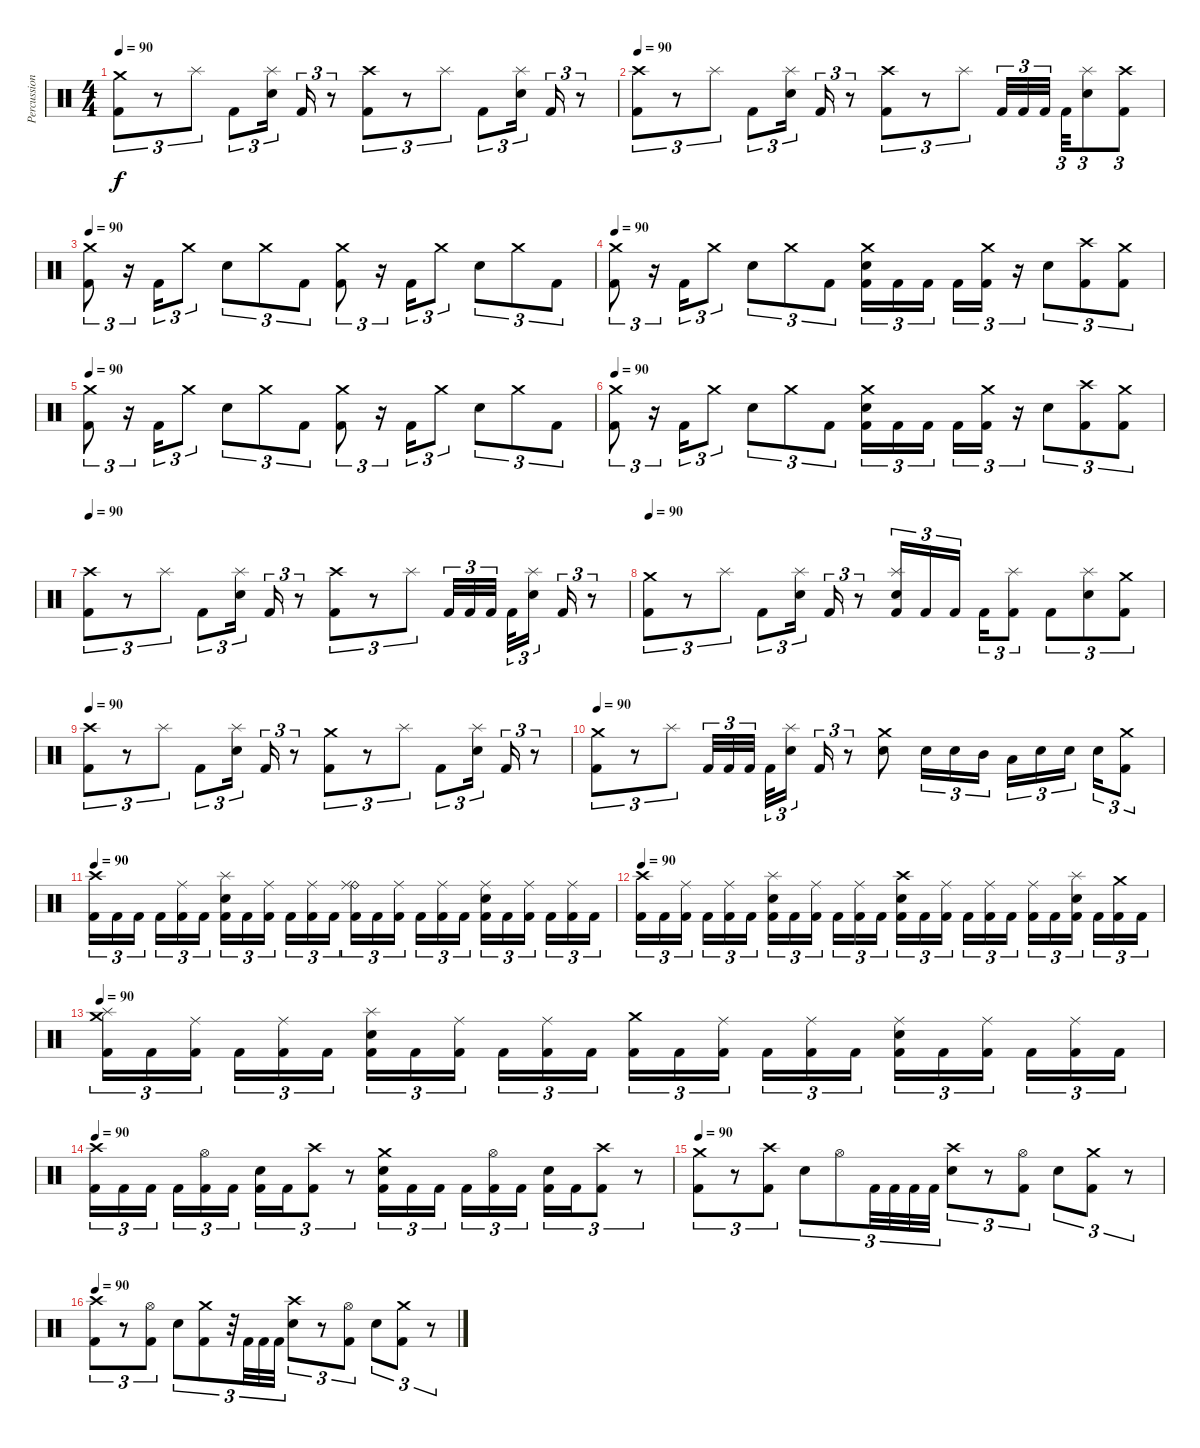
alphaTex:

\track ("Percussion" "Percussion") {instrument percussion}
\staff {score}
\articulation defaults
\ts (4 4)
\tempo 90
\clef neutral
\ks c
("Crash medium (hit)" "Kick (hit) 2").8{tu (3 2) dy f} r.8{tu (3 2)} "Splash (hit)".8{tu (3 2)} "Kick (hit) 2".8{tu (3 2)} ("Splash (hit)" "Electric Snare (hit)").16{tu (3 2)} "Kick (hit) 2".16{tu (3 2)} r.8{tu (3 2)} ("Crash high (hit)" "Kick (hit) 2").8{tu (3 2)} r.8{tu (3 2)} "Splash (hit)".8{tu (3 2)} "Kick (hit) 2".8{tu (3 2)} ("Splash (hit)" "Electric Snare (hit)").16{tu (3 2)} "Kick (hit) 2".16{tu (3 2)} r.8{tu (3 2)} |
\tempo 90
("Crash high (hit)" "Kick (hit) 2").8{tu (3 2)} r.8{tu (3 2)} "Splash (hit)".8{tu (3 2)} "Kick (hit) 2".8{tu (3 2)} ("Splash (hit)" "Electric Snare (hit)").16{tu (3 2)} "Kick (hit) 2".16{tu (3 2)} r.8{tu (3 2)} ("Crash high (hit)" "Kick (hit) 2").8{tu (3 2)} r.8{tu (3 2)} "Splash (hit)".8{tu (3 2)} "Kick (hit) 2".32{tu (3 2)} "Kick (hit) 2".32{tu (3 2)} "Kick (hit) 2".32{tu (3 2)} "Kick (hit) 2".32{tu (3 2)} ("Splash (hit)" "Electric Snare (hit)").8{tu (3 2)} ("Crash high (hit)" "Kick (hit) 2").8{tu (3 2)} |
\tempo 90
("Crash medium (hit)" "Kick (hit) 2").8{tu (3 2)} r.16{tu (3 2)} "Kick (hit) 2".16{tu (3 2)} "Crash medium (hit)".8{tu (3 2)} "Electric Snare (hit)".8{tu (3 2)} "Crash medium (hit)".8{tu (3 2)} "Kick (hit) 2".8{tu (3 2)} ("Crash medium (hit)" "Kick (hit) 2").8{tu (3 2)} r.16{tu (3 2)} "Kick (hit) 2".16{tu (3 2)} "Crash medium (hit)".8{tu (3 2)} "Electric Snare (hit)".8{tu (3 2)} "Crash medium (hit)".8{tu (3 2)} "Kick (hit) 2".8{tu (3 2)} |
\tempo 90
("Crash medium (hit)" "Kick (hit) 2").8{tu (3 2)} r.16{tu (3 2)} "Kick (hit) 2".16{tu (3 2)} "Crash medium (hit)".8{tu (3 2)} "Electric Snare (hit)".8{tu (3 2)} "Crash medium (hit)".8{tu (3 2)} "Kick (hit) 2".8{tu (3 2)} ("Crash medium (hit)" "Electric Snare (hit)" "Kick (hit) 2").16{tu (3 2)} "Kick (hit) 2".16{tu (3 2)} "Kick (hit) 2".16{tu (3 2)} "Kick (hit) 2".16{tu (3 2)} ("Crash medium (hit)" "Kick (hit) 2").16{tu (3 2)} r.16{tu (3 2)} "Electric Snare (hit)".8{tu (3 2)} ("Crash high (hit)" "Kick (hit) 2").8{tu (3 2)} ("Crash medium (hit)" "Kick (hit) 2").8{tu (3 2)} |
\tempo 90
("Crash medium (hit)" "Kick (hit) 2").8{tu (3 2)} r.16{tu (3 2)} "Kick (hit) 2".16{tu (3 2)} "Crash medium (hit)".8{tu (3 2)} "Electric Snare (hit)".8{tu (3 2)} "Crash medium (hit)".8{tu (3 2)} "Kick (hit) 2".8{tu (3 2)} ("Crash medium (hit)" "Kick (hit) 2").8{tu (3 2)} r.16{tu (3 2)} "Kick (hit) 2".16{tu (3 2)} "Crash medium (hit)".8{tu (3 2)} "Electric Snare (hit)".8{tu (3 2)} "Crash medium (hit)".8{tu (3 2)} "Kick (hit) 2".8{tu (3 2)} |
\tempo 90
("Crash medium (hit)" "Kick (hit) 2").8{tu (3 2)} r.16{tu (3 2)} "Kick (hit) 2".16{tu (3 2)} "Crash medium (hit)".8{tu (3 2)} "Electric Snare (hit)".8{tu (3 2)} "Crash medium (hit)".8{tu (3 2)} "Kick (hit) 2".8{tu (3 2)} ("Crash medium (hit)" "Electric Snare (hit)" "Kick (hit) 2").16{tu (3 2)} "Kick (hit) 2".16{tu (3 2)} "Kick (hit) 2".16{tu (3 2)} "Kick (hit) 2".16{tu (3 2)} ("Crash medium (hit)" "Kick (hit) 2").16{tu (3 2)} r.16{tu (3 2)} "Electric Snare (hit)".8{tu (3 2)} ("Crash high (hit)" "Kick (hit) 2").8{tu (3 2)} ("Crash medium (hit)" "Kick (hit) 2").8{tu (3 2)} |
\tempo 90
("Crash high (hit)" "Kick (hit) 2").8{tu (3 2)} r.8{tu (3 2)} "Splash (hit)".8{tu (3 2)} "Kick (hit) 2".8{tu (3 2)} ("Splash (hit)" "Electric Snare (hit)").16{tu (3 2)} "Kick (hit) 2".16{tu (3 2)} r.8{tu (3 2)} ("Crash high (hit)" "Kick (hit) 2").8{tu (3 2)} r.8{tu (3 2)} "Splash (hit)".8{tu (3 2)} "Kick (hit) 2".32{tu (3 2)} "Kick (hit) 2".32{tu (3 2)} "Kick (hit) 2".32{tu (3 2)} "Kick (hit) 2".32{tu (3 2)} ("Splash (hit)" "Electric Snare (hit)").16{tu (3 2)} "Kick (hit) 2".16{tu (3 2)} r.8{tu (3 2)} |
\tempo 90
("Crash medium (hit)" "Kick (hit) 2").8{tu (3 2)} r.8{tu (3 2)} "Splash (hit)".8{tu (3 2)} "Kick (hit) 2".8{tu (3 2)} ("Splash (hit)" "Electric Snare (hit)").16{tu (3 2)} "Kick (hit) 2".16{tu (3 2)} r.8{tu (3 2)} ("Splash (hit)" "Electric Snare (hit)" "Kick (hit) 2").16{tu (3 2)} "Kick (hit) 2".16{tu (3 2)} "Kick (hit) 2".16{tu (3 2)} "Kick (hit) 2".16{tu (3 2)} ("Splash (hit)" "Kick (hit) 2").8{tu (3 2)} "Kick (hit) 2".8{tu (3 2)} ("Splash (hit)" "Electric Snare (hit)").8{tu (3 2)} ("Crash medium (hit)" "Kick (hit) 2").8{tu (3 2)} |
\tempo 90
("Crash high (hit)" "Kick (hit) 2").8{tu (3 2)} r.8{tu (3 2)} "Splash (hit)".8{tu (3 2)} "Kick (hit) 2".8{tu (3 2)} ("Splash (hit)" "Electric Snare (hit)").16{tu (3 2)} "Kick (hit) 2".16{tu (3 2)} r.8{tu (3 2)} ("Crash medium (hit)" "Kick (hit) 2").8{tu (3 2)} r.8{tu (3 2)} "Splash (hit)".8{tu (3 2)} "Kick (hit) 2".8{tu (3 2)} ("Splash (hit)" "Electric Snare (hit)").16{tu (3 2)} "Kick (hit) 2".16{tu (3 2)} r.8{tu (3 2)} |
\tempo 90
("Crash medium (hit)" "Kick (hit) 2").8{tu (3 2)} r.8{tu (3 2)} "Splash (hit)".8{tu (3 2)} "Kick (hit) 2".32{tu (3 2)} "Kick (hit) 2".32{tu (3 2)} "Kick (hit) 2".32{tu (3 2)} "Kick (hit) 2".32{tu (3 2)} ("Splash (hit)" "Electric Snare (hit)").16{tu (3 2)} "Kick (hit) 2".16{tu (3 2)} r.8{tu (3 2)} ("Crash medium (hit)" "Electric Snare (hit)").8 "Electric Snare (hit)".16{tu (3 2)} "Electric Snare (hit)".16{tu (3 2)} "Mid Tom (hit)".16{tu (3 2)} "Low Tom (hit)".16{tu (3 2)} "Electric Snare (hit)".16{tu (3 2)} "Electric Snare (hit)".16{tu (3 2)} "Electric Snare (hit)".16{tu (3 2)} ("Crash medium (hit)" "Kick (hit) 2").8{tu (3 2)} |
\tempo 90
("Crash high (hit)" "Kick (hit) 2").16{tu (3 2)} "Kick (hit) 2".16{tu (3 2)} "Kick (hit) 2".16{tu (3 2)} "Kick (hit) 2".16{tu (3 2)} ("Ride (middle)" "Kick (hit) 2").16{tu (3 2)} "Kick (hit) 2".16{tu (3 2)} ("Splash (hit)" "Electric Snare (hit)" "Kick (hit) 2").16{tu (3 2)} "Kick (hit) 2".16{tu (3 2)} ("Ride (middle)" "Kick (hit) 2").16{tu (3 2)} "Kick (hit) 2".16{tu (3 2)} ("Ride (middle)" "Kick (hit) 2").16{tu (3 2)} "Kick (hit) 2".16{tu (3 2)} ("Ride (bell)" "Ride (middle)" "Kick (hit) 2").16{tu (3 2)} "Kick (hit) 2".16{tu (3 2)} ("Ride (middle)" "Kick (hit) 2").16{tu (3 2)} "Kick (hit) 2".16{tu (3 2)} ("Ride (middle)" "Kick (hit) 2").16{tu (3 2)} "Kick (hit) 2".16{tu (3 2)} ("Ride (middle)" "Electric Snare (hit)" "Kick (hit) 2").16{tu (3 2)} "Kick (hit) 2".16{tu (3 2)} ("Ride (middle)" "Kick (hit) 2").16{tu (3 2)} "Kick (hit) 2".16{tu (3 2)} ("Ride (middle)" "Kick (hit) 2").16{tu (3 2)} "Kick (hit) 2".16{tu (3 2)} |
\tempo 90
("Crash high (hit)" "Kick (hit) 2").16{tu (3 2)} "Kick (hit) 2".16{tu (3 2)} ("Ride (middle)" "Kick (hit) 2").16{tu (3 2)} "Kick (hit) 2".16{tu (3 2)} ("Ride (middle)" "Kick (hit) 2").16{tu (3 2)} "Kick (hit) 2".16{tu (3 2)} ("Splash (hit)" "Electric Snare (hit)" "Kick (hit) 2").16{tu (3 2)} "Kick (hit) 2".16{tu (3 2)} ("Ride (middle)" "Kick (hit) 2").16{tu (3 2)} "Kick (hit) 2".16{tu (3 2)} ("Ride (middle)" "Kick (hit) 2").16{tu (3 2)} "Kick (hit) 2".16{tu (3 2)} ("Crash high (hit)" "Electric Snare (hit)" "Kick (hit) 2").16{tu (3 2)} "Kick (hit) 2".16{tu (3 2)} ("Ride (middle)" "Kick (hit) 2").16{tu (3 2)} "Kick (hit) 2".16{tu (3 2)} ("Ride (middle)" "Kick (hit) 2").16{tu (3 2)} "Kick (hit) 2".16{tu (3 2)} ("Ride (middle)" "Kick (hit) 2").16{tu (3 2)} "Kick (hit) 2".16{tu (3 2)} ("Splash (hit)" "Electric Snare (hit)" "Kick (hit) 2").16{tu (3 2)} "Kick (hit) 2".16{tu (3 2)} ("Crash medium (hit)" "Kick (hit) 2").16{tu (3 2)} "Kick (hit) 2".16{tu (3 2)} |
\tempo 90
("Crash medium (hit)" "Splash (hit)" "Kick (hit) 2").16{tu (3 2)} "Kick (hit) 2".16{tu (3 2)} ("Ride (middle)" "Kick (hit) 2").16{tu (3 2)} "Kick (hit) 2".16{tu (3 2)} ("Ride (middle)" "Kick (hit) 2").16{tu (3 2)} "Kick (hit) 2".16{tu (3 2)} ("Splash (hit)" "Electric Snare (hit)" "Kick (hit) 2").16{tu (3 2)} "Kick (hit) 2".16{tu (3 2)} ("Ride (middle)" "Kick (hit) 2").16{tu (3 2)} "Kick (hit) 2".16{tu (3 2)} ("Ride (middle)" "Kick (hit) 2").16{tu (3 2)} "Kick (hit) 2".16{tu (3 2)} ("Crash medium (hit)" "Kick (hit) 2").16{tu (3 2)} "Kick (hit) 2".16{tu (3 2)} ("Ride (middle)" "Kick (hit) 2").16{tu (3 2)} "Kick (hit) 2".16{tu (3 2)} ("Ride (middle)" "Kick (hit) 2").16{tu (3 2)} "Kick (hit) 2".16{tu (3 2)} ("Ride (middle)" "Electric Snare (hit)" "Kick (hit) 2").16{tu (3 2)} "Kick (hit) 2".16{tu (3 2)} ("Ride (middle)" "Kick (hit) 2").16{tu (3 2)} "Kick (hit) 2".16{tu (3 2)} ("Ride (middle)" "Kick (hit) 2").16{tu (3 2)} "Kick (hit) 2".16{tu (3 2)} |
\tempo 90
("Crash high (hit)" "Kick (hit) 2").16{tu (3 2)} "Kick (hit) 2".16{tu (3 2)} "Kick (hit) 2".16{tu (3 2)} "Kick (hit) 2".16{tu (3 2)} ("Hi-Hat (open)" "Kick (hit) 2").16{tu (3 2)} "Kick (hit) 2".16{tu (3 2)} ("Electric Snare (hit)" "Kick (hit) 2").16{tu (3 2)} "Kick (hit) 2".16{tu (3 2)} ("Crash high (hit)" "Kick (hit) 2").8{tu (3 2)} r.8{tu (3 2)} ("Crash medium (hit)" "Electric Snare (hit)" "Kick (hit) 2").16{tu (3 2)} "Kick (hit) 2".16{tu (3 2)} "Kick (hit) 2".16{tu (3 2)} "Kick (hit) 2".16{tu (3 2)} ("Hi-Hat (open)" "Kick (hit) 2").16{tu (3 2)} "Kick (hit) 2".16{tu (3 2)} ("Electric Snare (hit)" "Kick (hit) 2").16{tu (3 2)} "Kick (hit) 2".16{tu (3 2)} ("Crash high (hit)" "Kick (hit) 2").8{tu (3 2)} r.8{tu (3 2)} |
\tempo 90
("Crash medium (hit)" "Kick (hit) 2").8{tu (3 2)} r.8{tu (3 2)} ("Crash high (hit)" "Kick (hit) 2").8{tu (3 2)} "Electric Snare (hit)".8{tu (3 2)} "Hi-Hat (open)".8{tu (3 2)} "Kick (hit) 2".32{tu (3 2)} "Kick (hit) 2".32{tu (3 2)} "Kick (hit) 2".32{tu (3 2)} "Kick (hit) 2".32{tu (3 2)} ("Crash high (hit)" "Electric Snare (hit)").8{tu (3 2)} r.8{tu (3 2)} ("Hi-Hat (open)" "Kick (hit) 2").8{tu (3 2)} "Electric Snare (hit)".8{tu (3 2)} ("Crash medium (hit)" "Kick (hit) 2").8{tu (3 2)} r.8{tu (3 2)} |
\tempo 90
("Crash high (hit)" "Kick (hit) 2").8{tu (3 2)} r.8{tu (3 2)} ("Hi-Hat (open)" "Kick (hit) 2").8{tu (3 2)} "Electric Snare (hit)".8{tu (3 2)} ("Crash medium (hit)" "Kick (hit) 2").8{tu (3 2)} r.32{tu (3 2)} "Kick (hit) 2".32{tu (3 2)} "Kick (hit) 2".32{tu (3 2)} "Kick (hit) 2".32{tu (3 2)} ("Crash high (hit)" "Electric Snare (hit)").8{tu (3 2)} r.8{tu (3 2)} ("Hi-Hat (open)" "Kick (hit) 2").8{tu (3 2)} "Electric Snare (hit)".8{tu (3 2)} ("Crash medium (hit)" "Kick (hit) 2").8{tu (3 2)} r.8{tu (3 2)}
